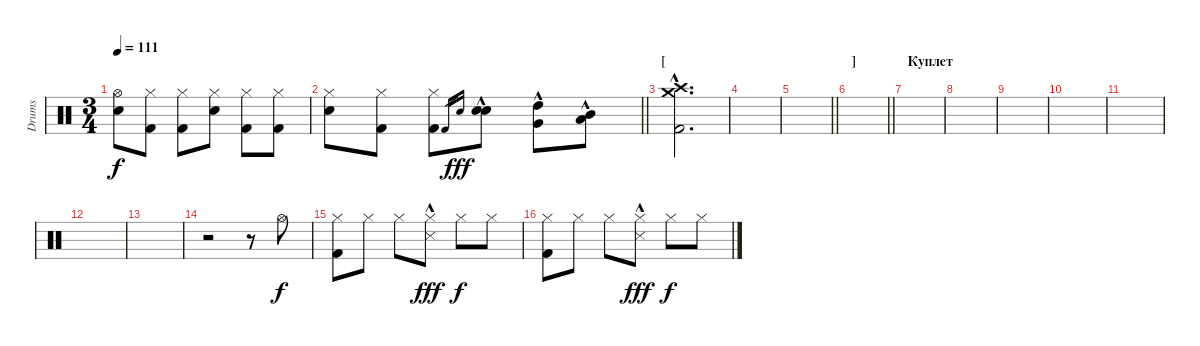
\track ("Drums" "Drums") {instrument percussion}
\staff {score}
\articulation defaults
\ts (3 4)
\tempo 111
\clef neutral
\ks c
("Hi-Hat (open)" "Snare (hit) 2").8{dy f} ("Hi-Hat (closed)" "Kick (hit) 2").8 ("Hi-Hat (closed)" "Kick (hit) 2").8 ("Hi-Hat (closed)" "Snare (hit) 2").8 ("Hi-Hat (closed)" "Kick (hit) 2").8 ("Hi-Hat (closed)" "Kick (hit) 2").8 |
\barLineRight lightlight
("Hi-Hat (closed)" "Snare (hit) 2").8 ("Hi-Hat (closed)" "Kick (hit) 2").8 ("Hi-Hat (closed)" "Kick (hit) 2").8 "Kick (hit) 2".16{gr} "Snare (hit) 2".16{gr dy fff} ("Snare (hit) 2"{hac} "Electric Snare (hit)"{hac}).8 ("High Tom (hit)"{hac} "Very Low Tom (hit)"{hac}).8 ("Mid Tom (hit)"{hac} "Low Floor Tom (hit)"{hac}).8 |
\section ("" "[")
("Crash medium (hit)"{hac} "Kick (hit) 2"{hac} "Crash high (hit)"{hac}).2{d} |
|
\barLineRight lightlight
|
\section ("" "]")
\barLineRight lightlight
|
\section ("" "Куплет")
|
|
|
|
|
|
|
r.2 r.8 "Hi-Hat (open)".8{dy f} |
("Hi-Hat (closed)" "Kick (hit) 2").8 "Hi-Hat (closed)".8 "Hi-Hat (closed)".8 ("Hi-Hat (closed)" "Snare (side stick) 3"{hac}).8{dy fff} "Hi-Hat (closed)".8{dy f} "Hi-Hat (closed)".8 |
("Hi-Hat (closed)" "Kick (hit) 2").8 "Hi-Hat (closed)".8 "Hi-Hat (closed)".8 ("Hi-Hat (closed)" "Snare (side stick) 3"{hac}).8{dy fff} "Hi-Hat (closed)".8{dy f} "Hi-Hat (closed)".8
